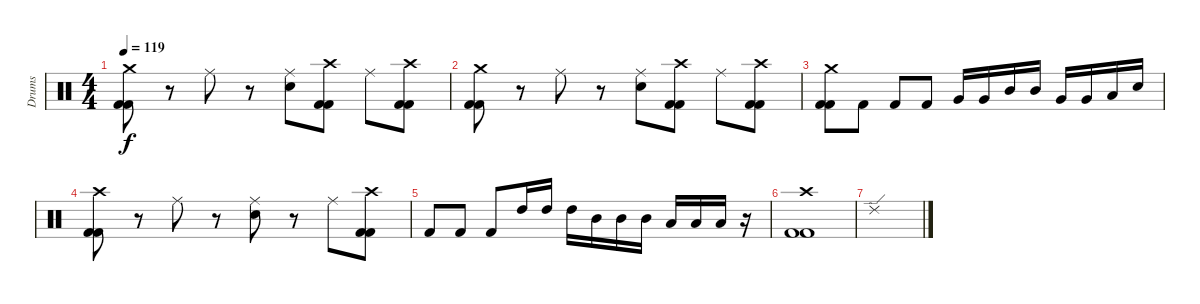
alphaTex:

\track ("Drums" "Drums") {instrument percussion}
\staff {score}
\articulation defaults
\ts (4 4)
\tempo 119
\clef neutral
\ks c
("Crash medium (hit)" "Kick (hit) 2" "Kick (hit) 2").8{dy f} r.8 "Ride (middle)".8 r.8 ("Ride (middle)" "Electric Snare (hit)").8 ("Crash high (hit)" "Kick (hit) 2" "Kick (hit) 2").8 "Ride (middle)".8 ("Crash high (hit)" "Kick (hit) 2" "Kick (hit) 2").8 |
("Crash medium (hit)" "Kick (hit) 2" "Kick (hit) 2").8 r.8 "Ride (middle)".8 r.8 ("Ride (middle)" "Electric Snare (hit)").8 ("Crash high (hit)" "Kick (hit) 2" "Kick (hit) 2").8 "Ride (middle)".8 ("Crash high (hit)" "Kick (hit) 2" "Kick (hit) 2").8 |
("Crash medium (hit)" "Kick (hit) 2" "Kick (hit) 2").8 "Kick (hit) 2".8 "Kick (hit) 2".8 "Kick (hit) 2".8 "Very Low Tom (hit)".16 "Very Low Tom (hit)".16 "Mid Tom (hit)".16 "Mid Tom (hit)".16 "Very Low Tom (hit)".16 "Very Low Tom (hit)".16 "Low Floor Tom (hit)".16 "Electric Snare (hit)".16 |
("Crash high (hit)" "Kick (hit) 2" "Kick (hit) 2").8 r.8 "Ride (middle)".8 r.8 ("Ride (middle)" "Electric Snare (hit)").8 r.8 "Ride (middle)".8 ("Crash high (hit)" "Kick (hit) 2" "Kick (hit) 2").8 |
"Kick (hit) 2".8 "Kick (hit) 2".8 "Kick (hit) 2".8 "High Tom (hit)".16 "High Tom (hit)".16 "High Tom (hit)".16 "Mid Tom (hit)".16 "Mid Tom (hit)".16 "Mid Tom (hit)".16 "Low Tom (hit)".16 "Low Tom (hit)".16 "Low Tom (hit)".16 r.16 |
("Crash high (hit)" "Kick (hit) 2" "Kick (hit) 2").1 |
"Ride (edge) 2".1
